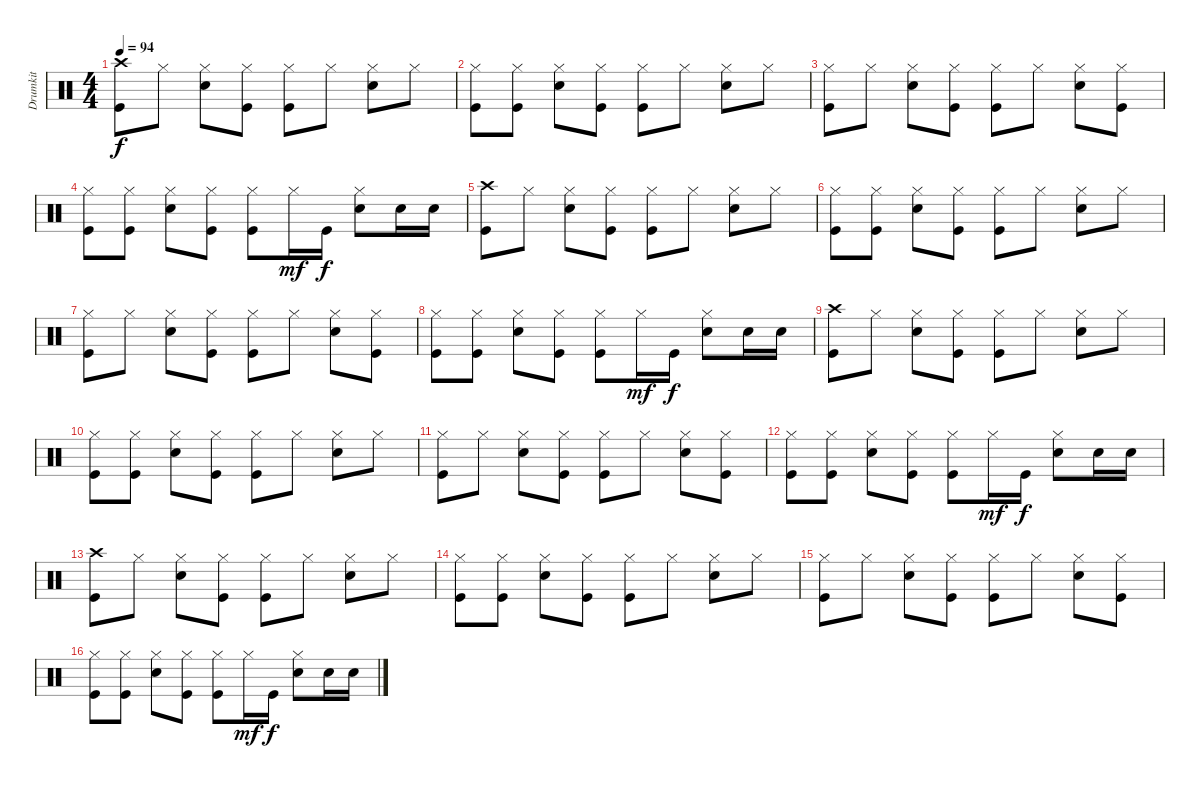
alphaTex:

\track ("Drumkit" "Drumkit") {instrument percussion}
\staff {score}
\articulation defaults
\ts (4 4)
\tempo 94
\clef neutral
\ks c
("Crash high (hit)" "Kick (hit)").8{dy f} "Hi-Hat (closed)".8 ("Hi-Hat (closed)" "Snare (hit) 2").8 ("Hi-Hat (closed)" "Kick (hit)").8 ("Hi-Hat (closed)" "Kick (hit)").8 "Hi-Hat (closed)".8 ("Hi-Hat (closed)" "Snare (hit) 2").8 "Hi-Hat (closed)".8 |
("Hi-Hat (closed)" "Kick (hit)").8 ("Hi-Hat (closed)" "Kick (hit)").8 ("Hi-Hat (closed)" "Snare (hit) 2").8 ("Hi-Hat (closed)" "Kick (hit)").8 ("Hi-Hat (closed)" "Kick (hit)").8 "Hi-Hat (closed)".8 ("Hi-Hat (closed)" "Snare (hit) 2").8 "Hi-Hat (closed)".8 |
("Hi-Hat (closed)" "Kick (hit)").8 "Hi-Hat (closed)".8 ("Hi-Hat (closed)" "Snare (hit) 2").8 ("Hi-Hat (closed)" "Kick (hit)").8 ("Hi-Hat (closed)" "Kick (hit)").8 "Hi-Hat (closed)".8 ("Hi-Hat (closed)" "Snare (hit) 2").8 ("Hi-Hat (closed)" "Kick (hit)").8 |
("Hi-Hat (closed)" "Kick (hit)").8 ("Hi-Hat (closed)" "Kick (hit)").8 ("Hi-Hat (closed)" "Snare (hit) 2").8 ("Hi-Hat (closed)" "Kick (hit)").8 ("Hi-Hat (closed)" "Kick (hit)").8 "Hi-Hat (closed)".16{dy mf} "Kick (hit)".16{dy f} ("Hi-Hat (closed)" "Snare (hit) 2").8 "Snare (hit) 2".16 "Snare (hit) 2".16 |
("Crash high (hit)" "Kick (hit)").8 "Hi-Hat (closed)".8 ("Hi-Hat (closed)" "Snare (hit) 2").8 ("Hi-Hat (closed)" "Kick (hit)").8 ("Hi-Hat (closed)" "Kick (hit)").8 "Hi-Hat (closed)".8 ("Hi-Hat (closed)" "Snare (hit) 2").8 "Hi-Hat (closed)".8 |
("Hi-Hat (closed)" "Kick (hit)").8 ("Hi-Hat (closed)" "Kick (hit)").8 ("Hi-Hat (closed)" "Snare (hit) 2").8 ("Hi-Hat (closed)" "Kick (hit)").8 ("Hi-Hat (closed)" "Kick (hit)").8 "Hi-Hat (closed)".8 ("Hi-Hat (closed)" "Snare (hit) 2").8 "Hi-Hat (closed)".8 |
("Hi-Hat (closed)" "Kick (hit)").8 "Hi-Hat (closed)".8 ("Hi-Hat (closed)" "Snare (hit) 2").8 ("Hi-Hat (closed)" "Kick (hit)").8 ("Hi-Hat (closed)" "Kick (hit)").8 "Hi-Hat (closed)".8 ("Hi-Hat (closed)" "Snare (hit) 2").8 ("Hi-Hat (closed)" "Kick (hit)").8 |
("Hi-Hat (closed)" "Kick (hit)").8 ("Hi-Hat (closed)" "Kick (hit)").8 ("Hi-Hat (closed)" "Snare (hit) 2").8 ("Hi-Hat (closed)" "Kick (hit)").8 ("Hi-Hat (closed)" "Kick (hit)").8 "Hi-Hat (closed)".16{dy mf} "Kick (hit)".16{dy f} ("Hi-Hat (closed)" "Snare (hit) 2").8 "Snare (hit) 2".16 "Snare (hit) 2".16 |
("Crash high (hit)" "Kick (hit)").8 "Hi-Hat (closed)".8 ("Hi-Hat (closed)" "Snare (hit) 2").8 ("Hi-Hat (closed)" "Kick (hit)").8 ("Hi-Hat (closed)" "Kick (hit)").8 "Hi-Hat (closed)".8 ("Hi-Hat (closed)" "Snare (hit) 2").8 "Hi-Hat (closed)".8 |
("Hi-Hat (closed)" "Kick (hit)").8 ("Hi-Hat (closed)" "Kick (hit)").8 ("Hi-Hat (closed)" "Snare (hit) 2").8 ("Hi-Hat (closed)" "Kick (hit)").8 ("Hi-Hat (closed)" "Kick (hit)").8 "Hi-Hat (closed)".8 ("Hi-Hat (closed)" "Snare (hit) 2").8 "Hi-Hat (closed)".8 |
("Hi-Hat (closed)" "Kick (hit)").8 "Hi-Hat (closed)".8 ("Hi-Hat (closed)" "Snare (hit) 2").8 ("Hi-Hat (closed)" "Kick (hit)").8 ("Hi-Hat (closed)" "Kick (hit)").8 "Hi-Hat (closed)".8 ("Hi-Hat (closed)" "Snare (hit) 2").8 ("Hi-Hat (closed)" "Kick (hit)").8 |
("Hi-Hat (closed)" "Kick (hit)").8 ("Hi-Hat (closed)" "Kick (hit)").8 ("Hi-Hat (closed)" "Snare (hit) 2").8 ("Hi-Hat (closed)" "Kick (hit)").8 ("Hi-Hat (closed)" "Kick (hit)").8 "Hi-Hat (closed)".16{dy mf} "Kick (hit)".16{dy f} ("Hi-Hat (closed)" "Snare (hit) 2").8 "Snare (hit) 2".16 "Snare (hit) 2".16 |
("Crash high (hit)" "Kick (hit)").8 "Hi-Hat (closed)".8 ("Hi-Hat (closed)" "Snare (hit) 2").8 ("Hi-Hat (closed)" "Kick (hit)").8 ("Hi-Hat (closed)" "Kick (hit)").8 "Hi-Hat (closed)".8 ("Hi-Hat (closed)" "Snare (hit) 2").8 "Hi-Hat (closed)".8 |
("Hi-Hat (closed)" "Kick (hit)").8 ("Hi-Hat (closed)" "Kick (hit)").8 ("Hi-Hat (closed)" "Snare (hit) 2").8 ("Hi-Hat (closed)" "Kick (hit)").8 ("Hi-Hat (closed)" "Kick (hit)").8 "Hi-Hat (closed)".8 ("Hi-Hat (closed)" "Snare (hit) 2").8 "Hi-Hat (closed)".8 |
("Hi-Hat (closed)" "Kick (hit)").8 "Hi-Hat (closed)".8 ("Hi-Hat (closed)" "Snare (hit) 2").8 ("Hi-Hat (closed)" "Kick (hit)").8 ("Hi-Hat (closed)" "Kick (hit)").8 "Hi-Hat (closed)".8 ("Hi-Hat (closed)" "Snare (hit) 2").8 ("Hi-Hat (closed)" "Kick (hit)").8 |
("Hi-Hat (closed)" "Kick (hit)").8 ("Hi-Hat (closed)" "Kick (hit)").8 ("Hi-Hat (closed)" "Snare (hit) 2").8 ("Hi-Hat (closed)" "Kick (hit)").8 ("Hi-Hat (closed)" "Kick (hit)").8 "Hi-Hat (closed)".16{dy mf} "Kick (hit)".16{dy f} ("Hi-Hat (closed)" "Snare (hit) 2").8 "Snare (hit) 2".16 "Snare (hit) 2".16
